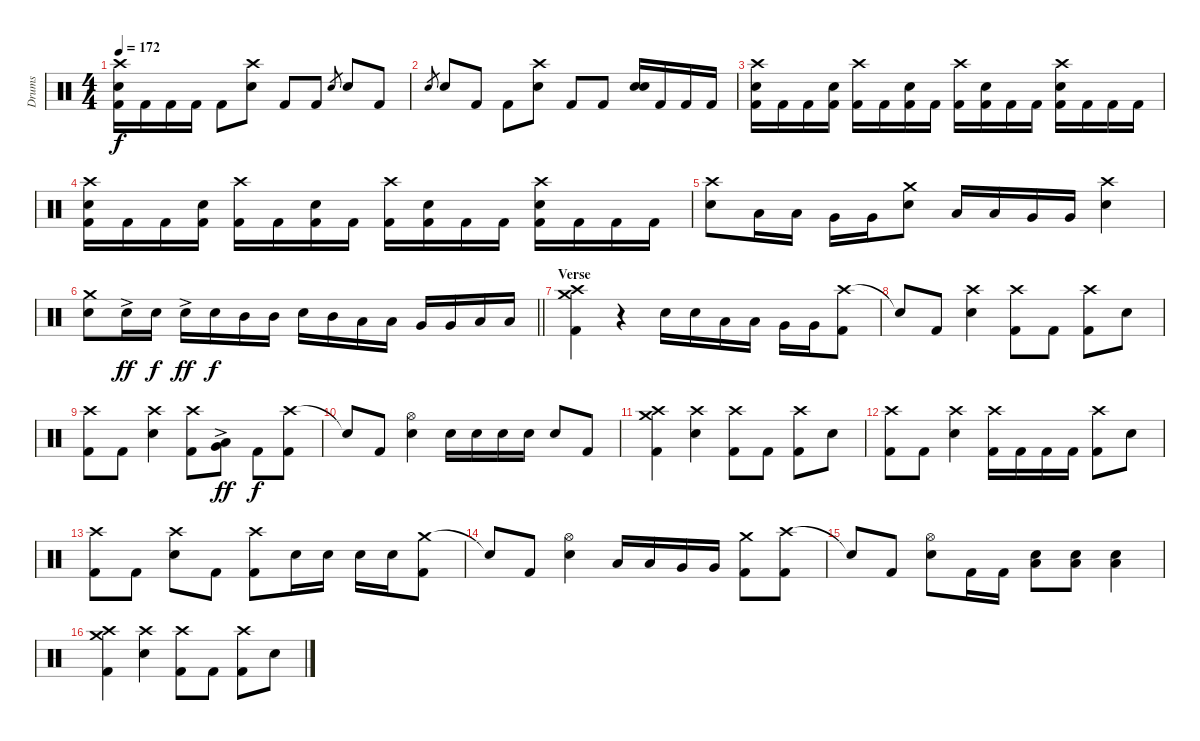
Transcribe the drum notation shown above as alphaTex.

\track ("Drums" "Drums") {instrument percussion}
\staff {score}
\articulation defaults
\ts (4 4)
\tempo 172
\clef neutral
\ks c
("Crash high (hit)" "Electric Snare (hit)" "Kick (hit) 2").16{dy f} "Kick (hit) 2".16 "Kick (hit) 2".16 "Kick (hit) 2".16 "Kick (hit) 2".8 ("Crash high (hit)" "Electric Snare (hit)").8 "Kick (hit) 2".8 "Kick (hit) 2".8 "Electric Snare (hit)".8{gr} "Electric Snare (hit)".8 "Kick (hit) 2".8 |
"Electric Snare (hit)".8{gr} "Electric Snare (hit)".8 "Kick (hit) 2".8 "Kick (hit) 2".8 ("Crash high (hit)" "Electric Snare (hit)").8 "Kick (hit) 2".8 "Kick (hit) 2".8 ("Electric Snare (hit)" "Electric Snare (hit)").16{bu 120} "Kick (hit) 2".16 "Kick (hit) 2".16 "Kick (hit) 2".16 |
("Crash high (hit)" "Electric Snare (hit)" "Kick (hit) 2").16 "Kick (hit) 2".16 "Kick (hit) 2".16 ("Electric Snare (hit)" "Kick (hit) 2").16 ("Crash high (hit)" "Kick (hit) 2").16 "Kick (hit) 2".16 ("Electric Snare (hit)" "Kick (hit) 2").16 "Kick (hit) 2".16 ("Crash high (hit)" "Kick (hit) 2").16 ("Electric Snare (hit)" "Kick (hit) 2").16 "Kick (hit) 2".16 "Kick (hit) 2".16 ("Crash high (hit)" "Electric Snare (hit)" "Kick (hit) 2").16 "Kick (hit) 2".16 "Kick (hit) 2".16 "Kick (hit) 2".16 |
("Crash high (hit)" "Electric Snare (hit)" "Kick (hit) 2").16 "Kick (hit) 2".16 "Kick (hit) 2".16 ("Electric Snare (hit)" "Kick (hit) 2").16 ("Crash high (hit)" "Kick (hit) 2").16 "Kick (hit) 2".16 ("Electric Snare (hit)" "Kick (hit) 2").16 "Kick (hit) 2".16 ("Crash high (hit)" "Kick (hit) 2").16 ("Electric Snare (hit)" "Kick (hit) 2").16 "Kick (hit) 2".16 "Kick (hit) 2".16 ("Crash high (hit)" "Electric Snare (hit)" "Kick (hit) 2").16 "Kick (hit) 2".16 "Kick (hit) 2".16 "Kick (hit) 2".16 |
("Crash high (hit)" "Electric Snare (hit)").8 "Low Tom (hit)".16 "Low Tom (hit)".16 "Very Low Tom (hit)".16 "Very Low Tom (hit)".16 ("Crash medium (hit)" "Electric Snare (hit)").8 "Low Tom (hit)".16 "Low Tom (hit)".16 "Very Low Tom (hit)".16 "Very Low Tom (hit)".16 ("Crash high (hit)" "Electric Snare (hit)").4 |
\barLineRight lightlight
("Crash medium (hit)" "Electric Snare (hit)").8 "Electric Snare (hit)"{ac}.16{dy ff} "Electric Snare (hit)".16{dy f} "Electric Snare (hit)"{ac}.16{dy ff} "Electric Snare (hit)".16{dy f} "Mid Tom (hit)".16 "Mid Tom (hit)".16 "Electric Snare (hit)".16 "Mid Tom (hit)".16 "Low Tom (hit)".16 "Low Tom (hit)".16 "Very Low Tom (hit)".16 "Very Low Tom (hit)".16 "Low Floor Tom (hit)".16 "Low Floor Tom (hit)".16 |
\section ("" "Verse")
("Crash medium (hit)" "Crash high (hit)" "Kick (hit) 2").4 r.4{volume 0} "Electric Snare (hit)".16{volume 14} "Electric Snare (hit)".16 "Low Tom (hit)".16 "Low Tom (hit)".16 "Very Low Tom (hit)".16 "Very Low Tom (hit)".16 ("Crash high (hit)" "Kick (hit) 2").8 |
"Snare (hit)"{t}.8 "Kick (hit) 2".8 ("Crash high (hit)" "Electric Snare (hit)").4 ("Crash high (hit)" "Kick (hit) 2").8 "Kick (hit) 2".8 ("Crash high (hit)" "Kick (hit) 2").8 "Electric Snare (hit)".8 |
("Crash high (hit)" "Kick (hit) 2").8 "Kick (hit) 2".8 ("Crash high (hit)" "Electric Snare (hit)").4 ("Crash high (hit)" "Kick (hit) 2").8 ("Low Tom (hit)"{ac} "Very Low Tom (hit)"{ac}).8{dy ff} "Kick (hit) 2".8{dy f} ("Crash high (hit)" "Kick (hit) 2").8 |
"Snare (hit)"{t}.8 "Kick (hit) 2".8 ("Hi-Hat (open)" "Electric Snare (hit)").4 "Electric Snare (hit)".16 "Electric Snare (hit)".16 "Electric Snare (hit)".16 "Electric Snare (hit)".16 "Electric Snare (hit)".8 "Kick (hit) 2".8 |
("Crash medium (hit)" "Crash high (hit)" "Kick (hit) 2").4 ("Crash high (hit)" "Electric Snare (hit)").4 ("Crash high (hit)" "Kick (hit) 2").8 "Kick (hit) 2".8 ("Crash high (hit)" "Kick (hit) 2").8 "Electric Snare (hit)".8 |
("Crash high (hit)" "Kick (hit) 2").8 "Kick (hit) 2".8 ("Crash high (hit)" "Electric Snare (hit)").4 ("Crash high (hit)" "Kick (hit) 2").16 "Kick (hit) 2".16 "Kick (hit) 2".16 "Kick (hit) 2".16 ("Crash high (hit)" "Kick (hit) 2").8 "Electric Snare (hit)".8 |
("Crash high (hit)" "Kick (hit) 2").8 "Kick (hit) 2".8 ("Crash high (hit)" "Electric Snare (hit)").8 "Kick (hit) 2".8 ("Crash high (hit)" "Kick (hit) 2").8 "Electric Snare (hit)".16 "Electric Snare (hit)".16 "Electric Snare (hit)".16 "Electric Snare (hit)".16 ("Crash medium (hit)" "Kick (hit) 2").8 |
"Snare (hit)"{t}.8 "Kick (hit) 2".8 ("Hi-Hat (open)" "Electric Snare (hit)").4 "Low Tom (hit)".16 "Low Tom (hit)".16 "Very Low Tom (hit)".16 "Very Low Tom (hit)".16 ("Crash medium (hit)" "Kick (hit) 2").8 ("Crash high (hit)" "Kick (hit) 2").8 |
"Snare (hit)"{t}.8 "Kick (hit) 2".8 ("Hi-Hat (open)" "Electric Snare (hit)").8 "Kick (hit) 2".16 "Kick (hit) 2".16 ("Low Tom (hit)" "Electric Snare (hit)").8 ("Low Tom (hit)" "Electric Snare (hit)").8 ("Low Tom (hit)" "Electric Snare (hit)").4 |
("Crash medium (hit)" "Crash high (hit)" "Kick (hit) 2").4 ("Crash high (hit)" "Electric Snare (hit)").4 ("Crash high (hit)" "Kick (hit) 2").8 "Kick (hit) 2".8 ("Crash high (hit)" "Kick (hit) 2").8 "Electric Snare (hit)".8
